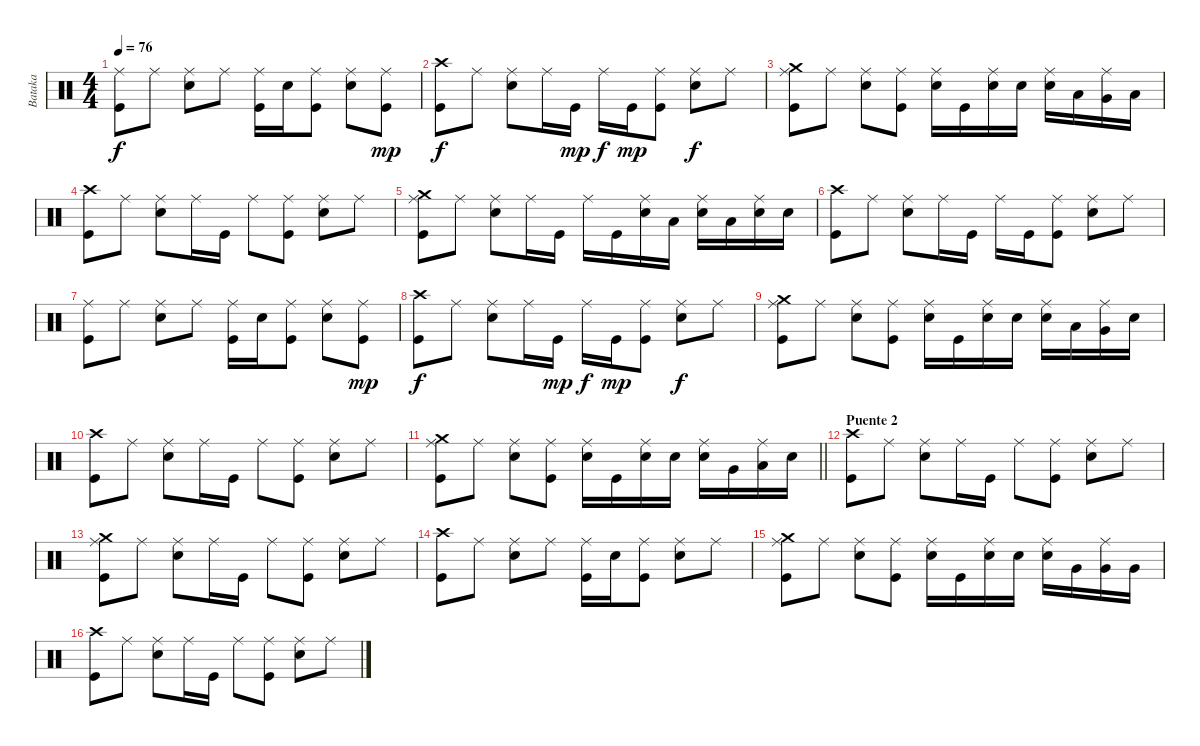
\track ("Bataka" "Bataka") {instrument percussion}
\staff {score}
\articulation defaults
\ts (4 4)
\tempo 76
\clef neutral
\ks c
("Ride (middle)" "Kick (hit)").8{dy f} "Ride (middle)".8 ("Ride (middle)" "Snare (hit) 2").8 "Ride (middle)".8 ("Ride (middle)" "Kick (hit)").16 "Snare (hit) 2".16 ("Ride (middle)" "Kick (hit)").8 ("Ride (middle)" "Snare (hit) 2").8 ("Ride (middle)" "Kick (hit)").8{dy mp} |
("Kick (hit)" "Crash high (hit)").8{dy f} "Ride (middle)".8 ("Ride (middle)" "Snare (hit) 2").8 "Ride (middle)".16 "Kick (hit)".16{dy mp} "Ride (middle)".16{dy f} "Kick (hit)".16{dy mp} ("Ride (middle)" "Kick (hit)").8 ("Ride (middle)" "Snare (hit) 2").8{dy f} "Ride (middle)".8 |
("Ride (middle)" "Kick (hit)" "Crash medium (hit)").8 "Ride (middle)".8 ("Ride (middle)" "Snare (hit) 2").8 ("Ride (middle)" "Kick (hit)").8 ("Ride (middle)" "Snare (hit) 2").16 "Kick (hit)".16 ("Ride (middle)" "Snare (hit) 2").16 "Snare (hit) 2".16 ("Ride (middle)" "Snare (hit) 2").16 "Low Tom (hit)".16 ("Ride (middle)" "Very Low Tom (hit)").16 "Low Floor Tom (hit)".16 |
("Crash high (hit)" "Kick (hit)").8 "Ride (middle)".8 ("Ride (middle)" "Snare (hit) 2").8 "Ride (middle)".16 "Kick (hit)".16 "Ride (middle)".8 ("Ride (middle)" "Kick (hit)").8 ("Ride (middle)" "Snare (hit) 2").8 "Ride (middle)".8 |
("Ride (middle)" "Kick (hit)" "Crash medium (hit)").8 "Ride (middle)".8 ("Ride (middle)" "Snare (hit) 2").8 "Ride (middle)".16 "Kick (hit)".16 "Ride (middle)".16 "Kick (hit)".16 ("Ride (middle)" "Snare (hit) 2").16 "Low Floor Tom (hit)".16 ("Ride (middle)" "Snare (hit) 2").16 "Low Tom (hit)".16 ("Ride (middle)" "Snare (hit) 2").16 "Snare (hit) 2".16 |
("Crash high (hit)" "Kick (hit)").8 "Ride (middle)".8 ("Ride (middle)" "Snare (hit) 2").8 "Ride (middle)".16 "Kick (hit)".16 "Ride (middle)".16 "Kick (hit)".16 ("Ride (middle)" "Kick (hit)").8 ("Ride (middle)" "Snare (hit) 2").8 "Ride (middle)".8 |
("Ride (middle)" "Kick (hit)").8 "Ride (middle)".8 ("Ride (middle)" "Snare (hit) 2").8 "Ride (middle)".8 ("Ride (middle)" "Kick (hit)").16 "Snare (hit) 2".16 ("Ride (middle)" "Kick (hit)").8 ("Ride (middle)" "Snare (hit) 2").8 ("Ride (middle)" "Kick (hit)").8{dy mp} |
("Kick (hit)" "Crash high (hit)").8{dy f} "Ride (middle)".8 ("Ride (middle)" "Snare (hit) 2").8 "Ride (middle)".16 "Kick (hit)".16{dy mp} "Ride (middle)".16{dy f} "Kick (hit)".16{dy mp} ("Ride (middle)" "Kick (hit)").8 ("Ride (middle)" "Snare (hit) 2").8{dy f} "Ride (middle)".8 |
("Ride (middle)" "Kick (hit)" "Crash medium (hit)").8 "Ride (middle)".8 ("Ride (middle)" "Snare (hit) 2").8 ("Ride (middle)" "Kick (hit)").8 ("Ride (middle)" "Snare (hit) 2").16 "Kick (hit)".16 ("Ride (middle)" "Snare (hit) 2").16 "Snare (hit) 2".16 ("Ride (middle)" "Snare (hit) 2").16 "Low Tom (hit)".16 ("Ride (middle)" "Very Low Tom (hit)").16 "Snare (hit) 2".16 |
("Crash high (hit)" "Kick (hit)").8 "Ride (middle)".8 ("Ride (middle)" "Snare (hit) 2").8 "Ride (middle)".16 "Kick (hit)".16 "Ride (middle)".8 ("Ride (middle)" "Kick (hit)").8 ("Ride (middle)" "Snare (hit) 2").8 "Ride (middle)".8 |
\barLineRight lightlight
("Ride (middle)" "Kick (hit)" "Crash medium (hit)").8 "Ride (middle)".8 ("Ride (middle)" "Snare (hit) 2").8 ("Ride (middle)" "Kick (hit)").8 ("Ride (middle)" "Snare (hit) 2").16 "Kick (hit)".16 ("Ride (middle)" "Snare (hit) 2").16 "Snare (hit) 2".16 ("Ride (middle)" "Snare (hit) 2").16 "Very Low Tom (hit)".16 ("Ride (middle)" "Low Floor Tom (hit)").16 "Snare (hit) 2".16 |
\section ("" "Puente 2")
("Crash high (hit)" "Kick (hit)").8 "Ride (middle)".8 ("Ride (middle)" "Snare (hit) 2").8 "Ride (middle)".16 "Kick (hit)".16 "Ride (middle)".8 ("Ride (middle)" "Kick (hit)").8 ("Ride (middle)" "Snare (hit) 2").8 "Ride (middle)".8 |
("Ride (middle)" "Kick (hit)" "Crash medium (hit)").8 "Ride (middle)".8 ("Ride (middle)" "Snare (hit) 2").8 "Ride (middle)".16 "Kick (hit)".16 "Ride (middle)".8 ("Ride (middle)" "Kick (hit)").8 ("Ride (middle)" "Snare (hit) 2").8 "Ride (middle)".8 |
("Kick (hit)" "Crash high (hit)").8 "Ride (middle)".8 ("Ride (middle)" "Snare (hit) 2").8 "Ride (middle)".8 ("Ride (middle)" "Kick (hit)").16 "Snare (hit) 2".16 ("Ride (middle)" "Kick (hit)").8 ("Ride (middle)" "Snare (hit) 2").8 "Ride (middle)".8 |
("Ride (middle)" "Kick (hit)" "Crash medium (hit)").8 "Ride (middle)".8 ("Ride (middle)" "Snare (hit) 2").8 ("Ride (middle)" "Kick (hit)").8 ("Ride (middle)" "Snare (hit) 2").16 "Kick (hit)".16 ("Ride (middle)" "Snare (hit) 2").16 "Snare (hit) 2".16 ("Ride (middle)" "Snare (hit) 2").16 "Very Low Tom (hit)".16 ("Ride (middle)" "Very Low Tom (hit)").16 "Very Low Tom (hit)".16 |
("Crash high (hit)" "Kick (hit)").8 "Ride (middle)".8 ("Ride (middle)" "Snare (hit) 2").8 "Ride (middle)".16 "Kick (hit)".16 "Ride (middle)".8 ("Ride (middle)" "Kick (hit)").8 ("Ride (middle)" "Snare (hit) 2").8 "Ride (middle)".8
